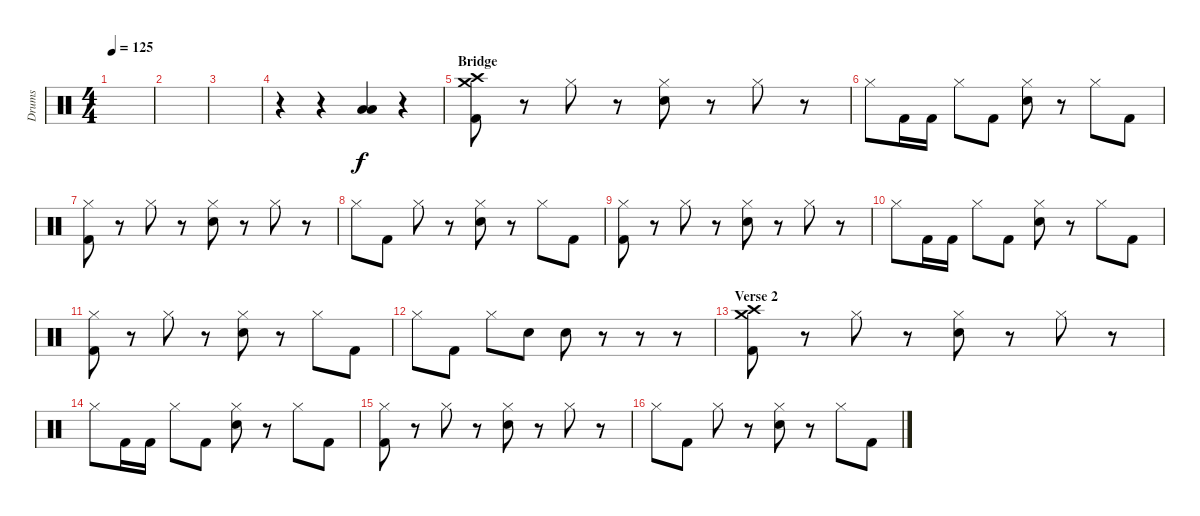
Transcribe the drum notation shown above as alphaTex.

\track ("Drums" "Drums") {instrument percussion}
\staff {score}
\articulation defaults
\ts (4 4)
\tempo 125
\clef neutral
\ks c
|
|
|
r.4 r.4 ("Low Tom (hit)" "Low Floor Tom (hit)").4 r.4 |
\section ("" "Bridge")
("Crash high (hit)" "Crash medium (hit)" "Kick (hit) 2").8 r.8 "Hi-Hat (closed)".8 r.8 ("Hi-Hat (closed)" "Electric Snare (hit)").8 r.8 "Hi-Hat (closed)".8 r.8 |
"Hi-Hat (closed)".8 "Kick (hit) 2".16 "Kick (hit) 2".16 "Hi-Hat (closed)".8 "Kick (hit) 2".8 ("Hi-Hat (closed)" "Electric Snare (hit)").8 r.8 "Hi-Hat (closed)".8 "Kick (hit) 2".8 |
("Hi-Hat (closed)" "Kick (hit) 2").8 r.8 "Hi-Hat (closed)".8 r.8 ("Hi-Hat (closed)" "Electric Snare (hit)").8 r.8 "Hi-Hat (closed)".8 r.8 |
"Hi-Hat (closed)".8 "Kick (hit) 2".8 "Hi-Hat (closed)".8 r.8 ("Hi-Hat (closed)" "Electric Snare (hit)").8 r.8 "Hi-Hat (closed)".8 "Kick (hit) 2".8 |
("Hi-Hat (closed)" "Kick (hit) 2").8 r.8 "Hi-Hat (closed)".8 r.8 ("Hi-Hat (closed)" "Electric Snare (hit)").8 r.8 "Hi-Hat (closed)".8 r.8 |
"Hi-Hat (closed)".8 "Kick (hit) 2".16 "Kick (hit) 2".16 "Hi-Hat (closed)".8 "Kick (hit) 2".8 ("Hi-Hat (closed)" "Electric Snare (hit)").8 r.8 "Hi-Hat (closed)".8 "Kick (hit) 2".8 |
("Hi-Hat (closed)" "Kick (hit) 2").8 r.8 "Hi-Hat (closed)".8 r.8 ("Hi-Hat (closed)" "Electric Snare (hit)").8 r.8 "Hi-Hat (closed)".8 "Kick (hit) 2".8 |
"Hi-Hat (closed)".8 "Kick (hit) 2".8 "Hi-Hat (closed)".8 "Electric Snare (hit)".8 "Electric Snare (hit)".8 r.8 r.8 r.8 |
\section ("" "Verse 2")
("Crash medium (hit)" "Crash high (hit)" "Kick (hit) 2").8 r.8 "Hi-Hat (closed)".8 r.8 ("Hi-Hat (closed)" "Electric Snare (hit)").8 r.8 "Hi-Hat (closed)".8 r.8 |
"Hi-Hat (closed)".8 "Kick (hit) 2".16 "Kick (hit) 2".16 "Hi-Hat (closed)".8 "Kick (hit) 2".8 ("Hi-Hat (closed)" "Electric Snare (hit)").8 r.8 "Hi-Hat (closed)".8 "Kick (hit) 2".8 |
("Hi-Hat (closed)" "Kick (hit) 2").8 r.8 "Hi-Hat (closed)".8 r.8 ("Hi-Hat (closed)" "Electric Snare (hit)").8 r.8 "Hi-Hat (closed)".8 r.8 |
"Hi-Hat (closed)".8 "Kick (hit) 2".8 "Hi-Hat (closed)".8 r.8 ("Hi-Hat (closed)" "Electric Snare (hit)").8 r.8 "Hi-Hat (closed)".8 "Kick (hit) 2".8
